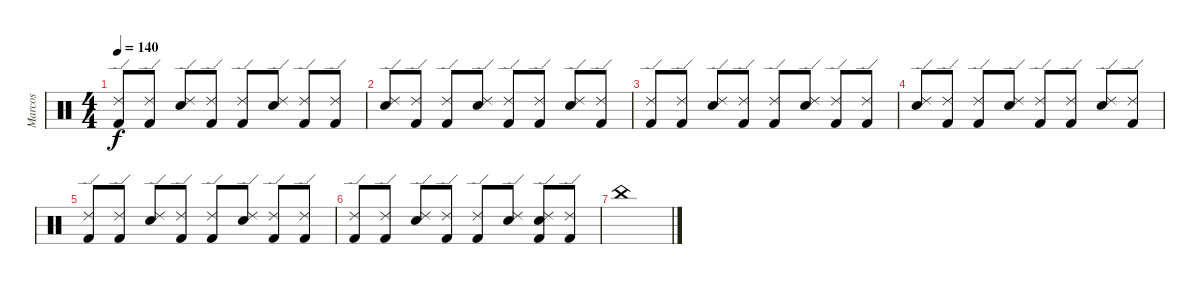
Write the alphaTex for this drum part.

\track ("Marcos" "Marcos") {instrument percussion}
\staff {score}
\articulation defaults
\ts (4 4)
\tempo 140
\clef neutral
\ks c
("Ride (edge) 2" "Kick (hit) 2").8{dy f} ("Ride (edge) 2" "Kick (hit) 2").8 ("Ride (edge) 2" "Electric Snare (hit)").8 ("Ride (edge) 2" "Kick (hit) 2").8 ("Ride (edge) 2" "Kick (hit) 2").8 ("Ride (edge) 2" "Electric Snare (hit)").8 ("Ride (edge) 2" "Kick (hit) 2").8 ("Ride (edge) 2" "Kick (hit) 2").8 |
("Ride (edge) 2" "Electric Snare (hit)").8 ("Ride (edge) 2" "Kick (hit) 2").8 ("Ride (edge) 2" "Kick (hit) 2").8 ("Ride (edge) 2" "Electric Snare (hit)").8 ("Ride (edge) 2" "Kick (hit) 2").8 ("Ride (edge) 2" "Kick (hit) 2").8 ("Ride (edge) 2" "Electric Snare (hit)").8 ("Ride (edge) 2" "Kick (hit) 2").8 |
("Ride (edge) 2" "Kick (hit) 2").8 ("Ride (edge) 2" "Kick (hit) 2").8 ("Ride (edge) 2" "Electric Snare (hit)").8 ("Ride (edge) 2" "Kick (hit) 2").8 ("Ride (edge) 2" "Kick (hit) 2").8 ("Ride (edge) 2" "Electric Snare (hit)").8 ("Ride (edge) 2" "Kick (hit) 2").8 ("Ride (edge) 2" "Kick (hit) 2").8 |
("Ride (edge) 2" "Electric Snare (hit)").8 ("Ride (edge) 2" "Kick (hit) 2").8 ("Ride (edge) 2" "Kick (hit) 2").8 ("Ride (edge) 2" "Electric Snare (hit)").8 ("Ride (edge) 2" "Kick (hit) 2").8 ("Ride (edge) 2" "Kick (hit) 2").8 ("Ride (edge) 2" "Electric Snare (hit)").8 ("Ride (edge) 2" "Kick (hit) 2").8 |
("Ride (edge) 2" "Kick (hit) 2").8 ("Ride (edge) 2" "Kick (hit) 2").8 ("Ride (edge) 2" "Electric Snare (hit)").8 ("Ride (edge) 2" "Kick (hit) 2").8 ("Ride (edge) 2" "Kick (hit) 2").8 ("Ride (edge) 2" "Electric Snare (hit)").8 ("Ride (edge) 2" "Kick (hit) 2").8 ("Ride (edge) 2" "Kick (hit) 2").8 |
("Ride (edge) 2" "Kick (hit) 2").8 ("Ride (edge) 2" "Kick (hit) 2").8 ("Ride (edge) 2" "Electric Snare (hit)").8 ("Ride (edge) 2" "Kick (hit) 2").8 ("Ride (edge) 2" "Kick (hit) 2").8 ("Ride (edge) 2" "Electric Snare (hit)").8 ("Ride (edge) 2" "Electric Snare (hit)" "Kick (hit) 2").8 ("Ride (edge) 2" "Kick (hit) 2").8 |
"China (hit)".1
